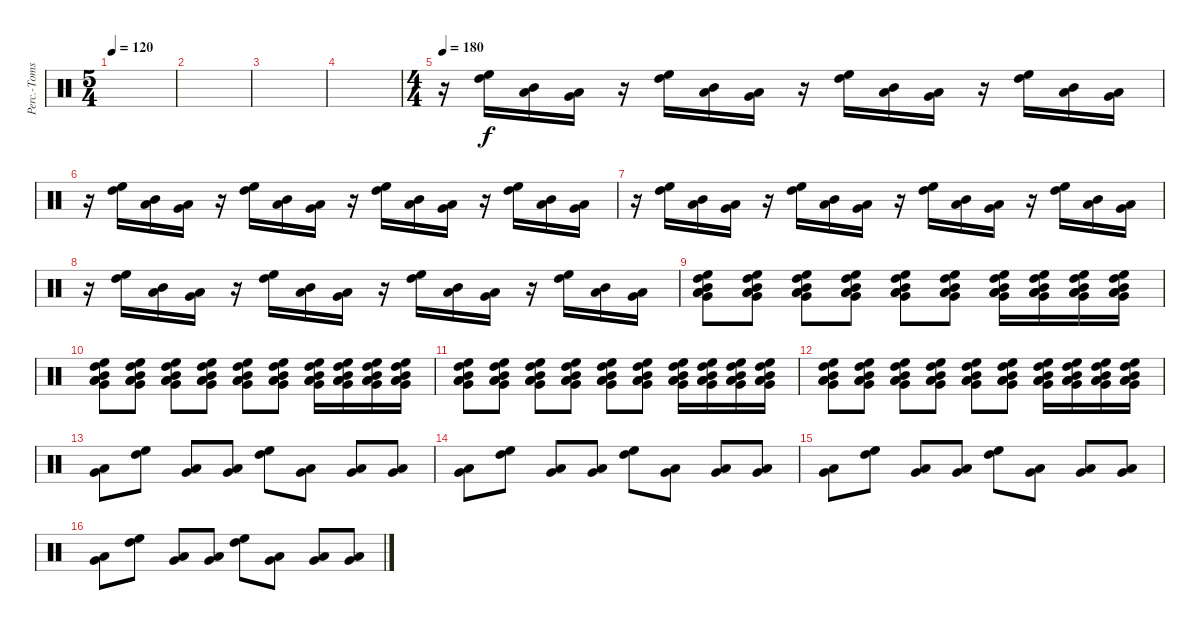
\track ("Perc.-Toms 2" "Perc.-Toms") {instrument percussion}
\staff {score}
\articulation defaults
\ts (5 4)
\tempo 120
\clef neutral
\ks c
|
|
|
|
\ts (4 4)
\tempo 180
r.16 ("High Floor Tom (hit)" "High Tom (hit)").16 ("Mid Tom (hit)" "Low Tom (hit)").16 ("Very Low Tom (hit)" "Low Floor Tom (hit)").16 r.16 ("High Floor Tom (hit)" "High Tom (hit)").16 ("Mid Tom (hit)" "Low Tom (hit)").16 ("Very Low Tom (hit)" "Low Floor Tom (hit)").16 r.16 ("High Floor Tom (hit)" "High Tom (hit)").16 ("Mid Tom (hit)" "Low Tom (hit)").16 ("Very Low Tom (hit)" "Low Floor Tom (hit)").16 r.16 ("High Floor Tom (hit)" "High Tom (hit)").16 ("Mid Tom (hit)" "Low Tom (hit)").16 ("Very Low Tom (hit)" "Low Floor Tom (hit)").16 |
r.16 ("High Floor Tom (hit)" "High Tom (hit)").16 ("Mid Tom (hit)" "Low Tom (hit)").16 ("Very Low Tom (hit)" "Low Floor Tom (hit)").16 r.16 ("High Floor Tom (hit)" "High Tom (hit)").16 ("Mid Tom (hit)" "Low Tom (hit)").16 ("Very Low Tom (hit)" "Low Floor Tom (hit)").16 r.16 ("High Floor Tom (hit)" "High Tom (hit)").16 ("Mid Tom (hit)" "Low Tom (hit)").16 ("Very Low Tom (hit)" "Low Floor Tom (hit)").16 r.16 ("High Floor Tom (hit)" "High Tom (hit)").16 ("Mid Tom (hit)" "Low Tom (hit)").16 ("Very Low Tom (hit)" "Low Floor Tom (hit)").16 |
r.16 ("High Floor Tom (hit)" "High Tom (hit)").16 ("Mid Tom (hit)" "Low Tom (hit)").16 ("Very Low Tom (hit)" "Low Floor Tom (hit)").16 r.16 ("High Floor Tom (hit)" "High Tom (hit)").16 ("Mid Tom (hit)" "Low Tom (hit)").16 ("Very Low Tom (hit)" "Low Floor Tom (hit)").16 r.16 ("High Floor Tom (hit)" "High Tom (hit)").16 ("Mid Tom (hit)" "Low Tom (hit)").16 ("Very Low Tom (hit)" "Low Floor Tom (hit)").16 r.16 ("High Floor Tom (hit)" "High Tom (hit)").16 ("Mid Tom (hit)" "Low Tom (hit)").16 ("Very Low Tom (hit)" "Low Floor Tom (hit)").16 |
r.16 ("High Floor Tom (hit)" "High Tom (hit)").16 ("Mid Tom (hit)" "Low Tom (hit)").16 ("Very Low Tom (hit)" "Low Floor Tom (hit)").16 r.16 ("High Floor Tom (hit)" "High Tom (hit)").16 ("Mid Tom (hit)" "Low Tom (hit)").16 ("Very Low Tom (hit)" "Low Floor Tom (hit)").16 r.16 ("High Floor Tom (hit)" "High Tom (hit)").16 ("Mid Tom (hit)" "Low Tom (hit)").16 ("Very Low Tom (hit)" "Low Floor Tom (hit)").16 r.16 ("High Floor Tom (hit)" "High Tom (hit)").16 ("Mid Tom (hit)" "Low Tom (hit)").16 ("Very Low Tom (hit)" "Low Floor Tom (hit)").16 |
("High Floor Tom (hit)" "High Tom (hit)" "Mid Tom (hit)" "Low Tom (hit)" "Very Low Tom (hit)" "Low Floor Tom (hit)").8 ("High Floor Tom (hit)" "High Tom (hit)" "Mid Tom (hit)" "Low Tom (hit)" "Very Low Tom (hit)" "Low Floor Tom (hit)").8 ("High Floor Tom (hit)" "High Tom (hit)" "Mid Tom (hit)" "Low Tom (hit)" "Very Low Tom (hit)" "Low Floor Tom (hit)").8 ("High Floor Tom (hit)" "High Tom (hit)" "Mid Tom (hit)" "Low Tom (hit)" "Very Low Tom (hit)" "Low Floor Tom (hit)").8 ("High Floor Tom (hit)" "High Tom (hit)" "Mid Tom (hit)" "Low Tom (hit)" "Very Low Tom (hit)" "Low Floor Tom (hit)").8 ("High Floor Tom (hit)" "High Tom (hit)" "Mid Tom (hit)" "Low Tom (hit)" "Very Low Tom (hit)" "Low Floor Tom (hit)").8 ("High Floor Tom (hit)" "High Tom (hit)" "Mid Tom (hit)" "Low Tom (hit)" "Very Low Tom (hit)" "Low Floor Tom (hit)").16 ("High Floor Tom (hit)" "High Tom (hit)" "Mid Tom (hit)" "Low Tom (hit)" "Very Low Tom (hit)" "Low Floor Tom (hit)").16 ("High Floor Tom (hit)" "High Tom (hit)" "Mid Tom (hit)" "Low Tom (hit)" "Very Low Tom (hit)" "Low Floor Tom (hit)").16 ("High Floor Tom (hit)" "High Tom (hit)" "Mid Tom (hit)" "Low Tom (hit)" "Very Low Tom (hit)" "Low Floor Tom (hit)").16 |
("High Floor Tom (hit)" "High Tom (hit)" "Mid Tom (hit)" "Low Tom (hit)" "Very Low Tom (hit)" "Low Floor Tom (hit)").8 ("High Floor Tom (hit)" "High Tom (hit)" "Mid Tom (hit)" "Low Tom (hit)" "Very Low Tom (hit)" "Low Floor Tom (hit)").8 ("High Floor Tom (hit)" "High Tom (hit)" "Mid Tom (hit)" "Low Tom (hit)" "Very Low Tom (hit)" "Low Floor Tom (hit)").8 ("High Floor Tom (hit)" "High Tom (hit)" "Mid Tom (hit)" "Low Tom (hit)" "Very Low Tom (hit)" "Low Floor Tom (hit)").8 ("High Floor Tom (hit)" "High Tom (hit)" "Mid Tom (hit)" "Low Tom (hit)" "Very Low Tom (hit)" "Low Floor Tom (hit)").8 ("High Floor Tom (hit)" "High Tom (hit)" "Mid Tom (hit)" "Low Tom (hit)" "Very Low Tom (hit)" "Low Floor Tom (hit)").8 ("High Floor Tom (hit)" "High Tom (hit)" "Mid Tom (hit)" "Low Tom (hit)" "Very Low Tom (hit)" "Low Floor Tom (hit)").16 ("High Floor Tom (hit)" "High Tom (hit)" "Mid Tom (hit)" "Low Tom (hit)" "Very Low Tom (hit)" "Low Floor Tom (hit)").16 ("High Floor Tom (hit)" "High Tom (hit)" "Mid Tom (hit)" "Low Tom (hit)" "Very Low Tom (hit)" "Low Floor Tom (hit)").16 ("High Floor Tom (hit)" "High Tom (hit)" "Mid Tom (hit)" "Low Tom (hit)" "Very Low Tom (hit)" "Low Floor Tom (hit)").16 |
("High Floor Tom (hit)" "High Tom (hit)" "Mid Tom (hit)" "Low Tom (hit)" "Very Low Tom (hit)" "Low Floor Tom (hit)").8 ("High Floor Tom (hit)" "High Tom (hit)" "Mid Tom (hit)" "Low Tom (hit)" "Very Low Tom (hit)" "Low Floor Tom (hit)").8 ("High Floor Tom (hit)" "High Tom (hit)" "Mid Tom (hit)" "Low Tom (hit)" "Very Low Tom (hit)" "Low Floor Tom (hit)").8 ("High Floor Tom (hit)" "High Tom (hit)" "Mid Tom (hit)" "Low Tom (hit)" "Very Low Tom (hit)" "Low Floor Tom (hit)").8 ("High Floor Tom (hit)" "High Tom (hit)" "Mid Tom (hit)" "Low Tom (hit)" "Very Low Tom (hit)" "Low Floor Tom (hit)").8 ("High Floor Tom (hit)" "High Tom (hit)" "Mid Tom (hit)" "Low Tom (hit)" "Very Low Tom (hit)" "Low Floor Tom (hit)").8 ("High Floor Tom (hit)" "High Tom (hit)" "Mid Tom (hit)" "Low Tom (hit)" "Very Low Tom (hit)" "Low Floor Tom (hit)").16 ("High Floor Tom (hit)" "High Tom (hit)" "Mid Tom (hit)" "Low Tom (hit)" "Very Low Tom (hit)" "Low Floor Tom (hit)").16 ("High Floor Tom (hit)" "High Tom (hit)" "Mid Tom (hit)" "Low Tom (hit)" "Very Low Tom (hit)" "Low Floor Tom (hit)").16 ("High Floor Tom (hit)" "High Tom (hit)" "Mid Tom (hit)" "Low Tom (hit)" "Very Low Tom (hit)" "Low Floor Tom (hit)").16 |
("High Floor Tom (hit)" "High Tom (hit)" "Mid Tom (hit)" "Low Tom (hit)" "Very Low Tom (hit)" "Low Floor Tom (hit)").8 ("High Floor Tom (hit)" "High Tom (hit)" "Mid Tom (hit)" "Low Tom (hit)" "Very Low Tom (hit)" "Low Floor Tom (hit)").8 ("High Floor Tom (hit)" "High Tom (hit)" "Mid Tom (hit)" "Low Tom (hit)" "Very Low Tom (hit)" "Low Floor Tom (hit)").8 ("High Floor Tom (hit)" "High Tom (hit)" "Mid Tom (hit)" "Low Tom (hit)" "Very Low Tom (hit)" "Low Floor Tom (hit)").8 ("High Floor Tom (hit)" "High Tom (hit)" "Mid Tom (hit)" "Low Tom (hit)" "Very Low Tom (hit)" "Low Floor Tom (hit)").8 ("High Floor Tom (hit)" "High Tom (hit)" "Mid Tom (hit)" "Low Tom (hit)" "Very Low Tom (hit)" "Low Floor Tom (hit)").8 ("High Floor Tom (hit)" "High Tom (hit)" "Mid Tom (hit)" "Low Tom (hit)" "Very Low Tom (hit)" "Low Floor Tom (hit)").16 ("High Floor Tom (hit)" "High Tom (hit)" "Mid Tom (hit)" "Low Tom (hit)" "Very Low Tom (hit)" "Low Floor Tom (hit)").16 ("High Floor Tom (hit)" "High Tom (hit)" "Mid Tom (hit)" "Low Tom (hit)" "Very Low Tom (hit)" "Low Floor Tom (hit)").16 ("High Floor Tom (hit)" "High Tom (hit)" "Mid Tom (hit)" "Low Tom (hit)" "Very Low Tom (hit)" "Low Floor Tom (hit)").16 |
("Very Low Tom (hit)" "Low Floor Tom (hit)").8 ("High Floor Tom (hit)" "High Tom (hit)").8 ("Very Low Tom (hit)" "Low Floor Tom (hit)").8 ("Very Low Tom (hit)" "Low Floor Tom (hit)").8 ("High Floor Tom (hit)" "High Tom (hit)").8 ("Very Low Tom (hit)" "Low Floor Tom (hit)").8 ("Very Low Tom (hit)" "Low Floor Tom (hit)").8 ("Very Low Tom (hit)" "Low Floor Tom (hit)").8 |
("Very Low Tom (hit)" "Low Floor Tom (hit)").8 ("High Floor Tom (hit)" "High Tom (hit)").8 ("Very Low Tom (hit)" "Low Floor Tom (hit)").8 ("Very Low Tom (hit)" "Low Floor Tom (hit)").8 ("High Floor Tom (hit)" "High Tom (hit)").8 ("Very Low Tom (hit)" "Low Floor Tom (hit)").8 ("Very Low Tom (hit)" "Low Floor Tom (hit)").8 ("Very Low Tom (hit)" "Low Floor Tom (hit)").8 |
("Very Low Tom (hit)" "Low Floor Tom (hit)").8 ("High Floor Tom (hit)" "High Tom (hit)").8 ("Very Low Tom (hit)" "Low Floor Tom (hit)").8 ("Very Low Tom (hit)" "Low Floor Tom (hit)").8 ("High Floor Tom (hit)" "High Tom (hit)").8 ("Very Low Tom (hit)" "Low Floor Tom (hit)").8 ("Very Low Tom (hit)" "Low Floor Tom (hit)").8 ("Very Low Tom (hit)" "Low Floor Tom (hit)").8 |
("Very Low Tom (hit)" "Low Floor Tom (hit)").8 ("High Floor Tom (hit)" "High Tom (hit)").8 ("Very Low Tom (hit)" "Low Floor Tom (hit)").8 ("Very Low Tom (hit)" "Low Floor Tom (hit)").8 ("High Floor Tom (hit)" "High Tom (hit)").8 ("Very Low Tom (hit)" "Low Floor Tom (hit)").8 ("Very Low Tom (hit)" "Low Floor Tom (hit)").8 ("Very Low Tom (hit)" "Low Floor Tom (hit)").8
